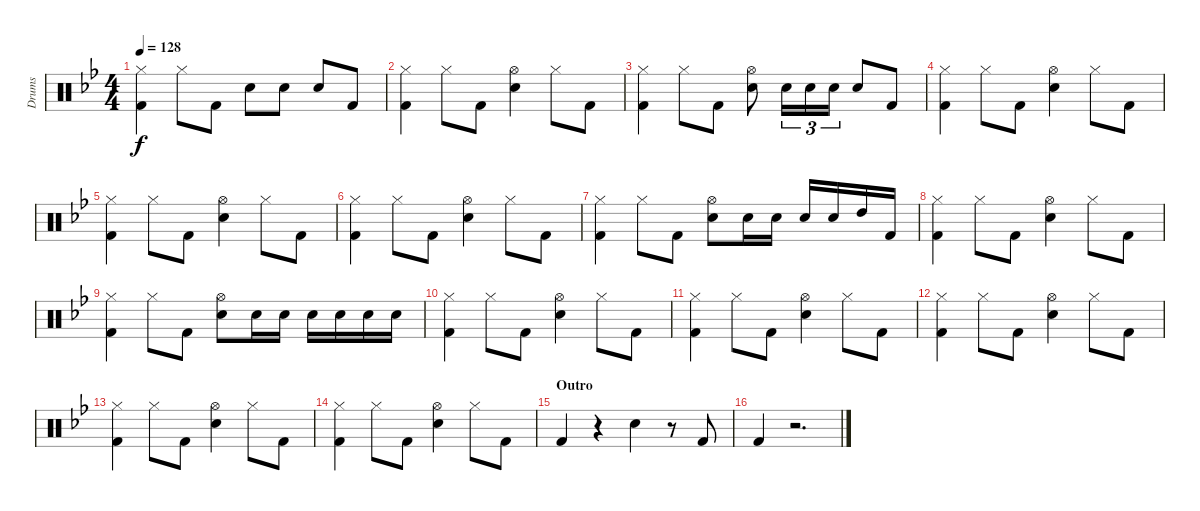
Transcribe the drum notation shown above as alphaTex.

\track ("Drums" "Drums") {instrument percussion}
\staff {score}
\articulation defaults
\ts (4 4)
\tempo 128
\clef neutral
\ks bb
("Hi-Hat (closed)" "Kick (hit) 2").4{dy f} "Hi-Hat (closed)".8 "Kick (hit) 2".8 "Electric Snare (hit)".8 "Electric Snare (hit)".8 "Electric Snare (hit)".8 "Kick (hit) 2".8 |
("Hi-Hat (closed)" "Kick (hit) 2").4 "Hi-Hat (closed)".8 "Kick (hit) 2".8 ("Hi-Hat (open)" "Electric Snare (hit)").4 "Hi-Hat (closed)".8 "Kick (hit) 2".8 |
("Hi-Hat (closed)" "Kick (hit) 2").4 "Hi-Hat (closed)".8 "Kick (hit) 2".8 ("Hi-Hat (open)" "Electric Snare (hit)").8 "Electric Snare (hit)".16{tu (3 2)} "Electric Snare (hit)".16{tu (3 2)} "Electric Snare (hit)".16{tu (3 2)} "Electric Snare (hit)".8 "Kick (hit) 2".8 |
("Hi-Hat (closed)" "Kick (hit) 2").4 "Hi-Hat (closed)".8 "Kick (hit) 2".8 ("Hi-Hat (open)" "Electric Snare (hit)").4 "Hi-Hat (closed)".8 "Kick (hit) 2".8 |
("Hi-Hat (closed)" "Kick (hit) 2").4 "Hi-Hat (closed)".8 "Kick (hit) 2".8 ("Hi-Hat (open)" "Electric Snare (hit)").4 "Hi-Hat (closed)".8 "Kick (hit) 2".8 |
("Hi-Hat (closed)" "Kick (hit) 2").4 "Hi-Hat (closed)".8 "Kick (hit) 2".8 ("Hi-Hat (open)" "Electric Snare (hit)").4 "Hi-Hat (closed)".8 "Kick (hit) 2".8 |
("Hi-Hat (closed)" "Kick (hit) 2").4 "Hi-Hat (closed)".8 "Kick (hit) 2".8 ("Hi-Hat (open)" "Electric Snare (hit)").8 "Electric Snare (hit)".16 "Electric Snare (hit)".16 "Electric Snare (hit)".16 "Electric Snare (hit)".16 "High Tom (hit)".16 "Kick (hit) 2".16 |
("Hi-Hat (closed)" "Kick (hit) 2").4 "Hi-Hat (closed)".8 "Kick (hit) 2".8 ("Hi-Hat (open)" "Electric Snare (hit)").4 "Hi-Hat (closed)".8 "Kick (hit) 2".8 |
("Hi-Hat (closed)" "Kick (hit) 2").4 "Hi-Hat (closed)".8 "Kick (hit) 2".8 ("Hi-Hat (open)" "Electric Snare (hit)").8 "Electric Snare (hit)".16 "Electric Snare (hit)".16 "Electric Snare (hit)".16 "Electric Snare (hit)".16 "Electric Snare (hit)".16 "Electric Snare (hit)".16 |
("Hi-Hat (closed)" "Kick (hit) 2").4 "Hi-Hat (closed)".8 "Kick (hit) 2".8 ("Hi-Hat (open)" "Electric Snare (hit)").4 "Hi-Hat (closed)".8 "Kick (hit) 2".8 |
("Hi-Hat (closed)" "Kick (hit) 2").4 "Hi-Hat (closed)".8 "Kick (hit) 2".8 ("Hi-Hat (open)" "Electric Snare (hit)").4 "Hi-Hat (closed)".8 "Kick (hit) 2".8 |
("Hi-Hat (closed)" "Kick (hit) 2").4 "Hi-Hat (closed)".8 "Kick (hit) 2".8 ("Hi-Hat (open)" "Electric Snare (hit)").4 "Hi-Hat (closed)".8 "Kick (hit) 2".8 |
("Hi-Hat (closed)" "Kick (hit) 2").4 "Hi-Hat (closed)".8 "Kick (hit) 2".8 ("Hi-Hat (open)" "Electric Snare (hit)").4 "Hi-Hat (closed)".8 "Kick (hit) 2".8 |
("Hi-Hat (closed)" "Kick (hit) 2").4 "Hi-Hat (closed)".8 "Kick (hit) 2".8 ("Hi-Hat (open)" "Electric Snare (hit)").4 "Hi-Hat (closed)".8 "Kick (hit) 2".8 |
\section ("" "Outro")
"Kick (hit) 2".4 r.4 "Electric Snare (hit)".4 r.8 "Kick (hit) 2".8 |
"Kick (hit) 2".4 r.2{d}
